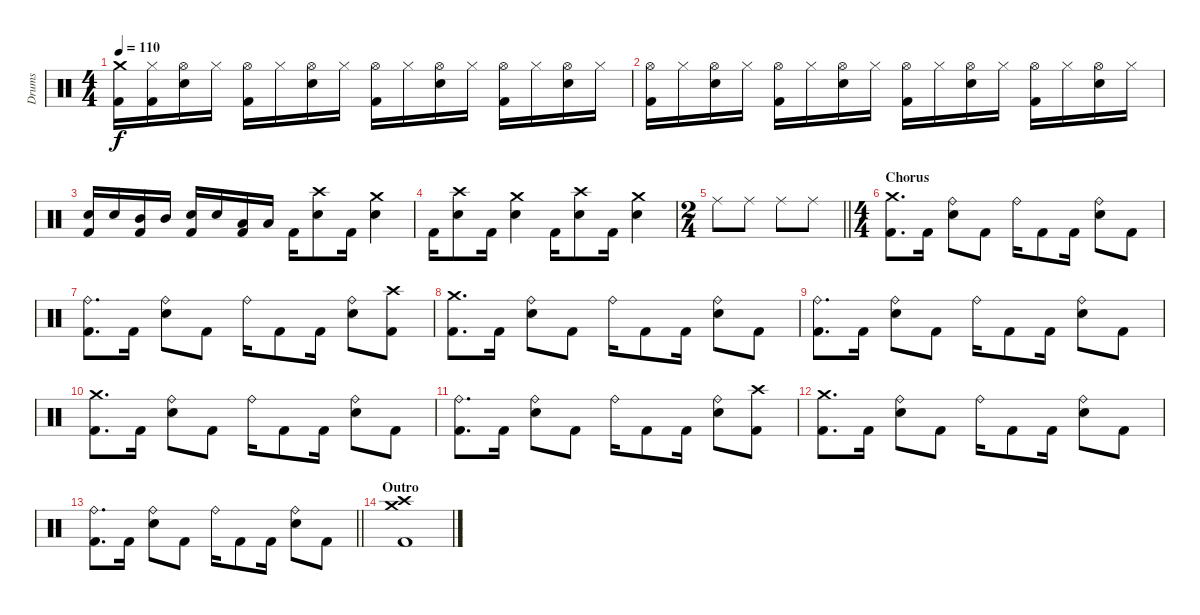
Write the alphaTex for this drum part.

\track ("Drums" "Drums") {instrument percussion}
\staff {score}
\articulation defaults
\ts (4 4)
\tempo 110
\clef neutral
\ks c
("Kick (hit) 2" "Crash medium (hit)").16{dy f} ("Kick (hit) 2" "Hi-Hat (closed)").16 ("Snare (hit) 2" "Hi-Hat (open)").16 "Hi-Hat (closed)".16 ("Kick (hit) 2" "Hi-Hat (open)").16 "Hi-Hat (closed)".16 ("Snare (hit) 2" "Hi-Hat (open)").16 "Hi-Hat (closed)".16 ("Kick (hit) 2" "Hi-Hat (open)").16 "Hi-Hat (closed)".16 ("Snare (hit) 2" "Hi-Hat (open)").16 "Hi-Hat (closed)".16 ("Kick (hit) 2" "Hi-Hat (open)").16 "Hi-Hat (closed)".16 ("Snare (hit) 2" "Hi-Hat (open)").16 "Hi-Hat (closed)".16 |
("Kick (hit) 2" "Hi-Hat (open)").16 "Hi-Hat (closed)".16 ("Snare (hit) 2" "Hi-Hat (open)").16 "Hi-Hat (closed)".16 ("Kick (hit) 2" "Hi-Hat (open)").16 "Hi-Hat (closed)".16 ("Snare (hit) 2" "Hi-Hat (open)").16 "Hi-Hat (closed)".16 ("Kick (hit) 2" "Hi-Hat (open)").16 "Hi-Hat (closed)".16 ("Snare (hit) 2" "Hi-Hat (open)").16 "Hi-Hat (closed)".16 ("Kick (hit) 2" "Hi-Hat (open)").16 "Hi-Hat (closed)".16 ("Snare (hit) 2" "Hi-Hat (open)").16 "Hi-Hat (closed)".16 |
("Kick (hit) 2" "Snare (hit) 2").16 "Snare (hit) 2".16 ("Kick (hit) 2" "Mid Tom (hit)").16 "Mid Tom (hit)".16 ("Kick (hit) 2" "Snare (hit) 2").16 "Snare (hit) 2".16 ("Kick (hit) 2" "Low Tom (hit)").16 "Low Tom (hit)".16 "Kick (hit) 2".16 ("Snare (hit) 2" "Crash high (hit)").8 "Kick (hit) 2".16 ("Snare (hit) 2" "Crash medium (hit)").4 |
"Kick (hit) 2".16 ("Snare (hit) 2" "Crash high (hit)").8 "Kick (hit) 2".16 ("Snare (hit) 2" "Crash medium (hit)").4 "Kick (hit) 2".16 ("Snare (hit) 2" "Crash high (hit)").8 "Kick (hit) 2".16 ("Snare (hit) 2" "Crash medium (hit)").4 |
\ts (2 4)
\barLineRight lightlight "Ride (middle)".8 "Ride (middle)".8 "Ride (middle)".8 "Ride (middle)".8
|
\ts (4 4)
\section ("" "Chorus")
("Kick (hit) 2" "Crash medium (hit)").8{d} "Kick (hit) 2".16 ("Snare (hit) 2" "Ride (bell)").8 "Kick (hit) 2".8 "Ride (bell)".16 "Kick (hit) 2".8 "Kick (hit) 2".16 ("Snare (hit) 2" "Ride (bell)").8 "Kick (hit) 2".8 |
("Kick (hit) 2" "Ride (bell)").8{d} "Kick (hit) 2".16 ("Snare (hit) 2" "Ride (bell)").8 "Kick (hit) 2".8 "Ride (bell)".16 "Kick (hit) 2".8 "Kick (hit) 2".16 ("Snare (hit) 2" "Ride (bell)").8 ("Kick (hit) 2" "Crash high (hit)").8 |
("Kick (hit) 2" "Crash medium (hit)").8{d} "Kick (hit) 2".16 ("Snare (hit) 2" "Ride (bell)").8 "Kick (hit) 2".8 "Ride (bell)".16 "Kick (hit) 2".8 "Kick (hit) 2".16 ("Snare (hit) 2" "Ride (bell)").8 "Kick (hit) 2".8 |
("Kick (hit) 2" "Ride (bell)").8{d} "Kick (hit) 2".16 ("Snare (hit) 2" "Ride (bell)").8 "Kick (hit) 2".8 "Ride (bell)".16 "Kick (hit) 2".8 "Kick (hit) 2".16 ("Snare (hit) 2" "Ride (bell)").8 "Kick (hit) 2".8 |
("Kick (hit) 2" "Crash medium (hit)").8{d} "Kick (hit) 2".16 ("Snare (hit) 2" "Ride (bell)").8 "Kick (hit) 2".8 "Ride (bell)".16 "Kick (hit) 2".8 "Kick (hit) 2".16 ("Snare (hit) 2" "Ride (bell)").8 "Kick (hit) 2".8 |
("Kick (hit) 2" "Ride (bell)").8{d} "Kick (hit) 2".16 ("Snare (hit) 2" "Ride (bell)").8 "Kick (hit) 2".8 "Ride (bell)".16 "Kick (hit) 2".8 "Kick (hit) 2".16 ("Snare (hit) 2" "Ride (bell)").8 ("Kick (hit) 2" "Crash high (hit)").8 |
("Kick (hit) 2" "Crash medium (hit)").8{d} "Kick (hit) 2".16 ("Snare (hit) 2" "Ride (bell)").8 "Kick (hit) 2".8 "Ride (bell)".16 "Kick (hit) 2".8 "Kick (hit) 2".16 ("Snare (hit) 2" "Ride (bell)").8 "Kick (hit) 2".8 |
\barLineRight lightlight
("Kick (hit) 2" "Ride (bell)").8{d} "Kick (hit) 2".16 ("Snare (hit) 2" "Ride (bell)").8 "Kick (hit) 2".8 "Ride (bell)".16 "Kick (hit) 2".8 "Kick (hit) 2".16 ("Snare (hit) 2" "Ride (bell)").8 "Kick (hit) 2".8 |
\section ("" "Outro")
("Kick (hit) 2" "Crash high (hit)" "Crash medium (hit)").1
